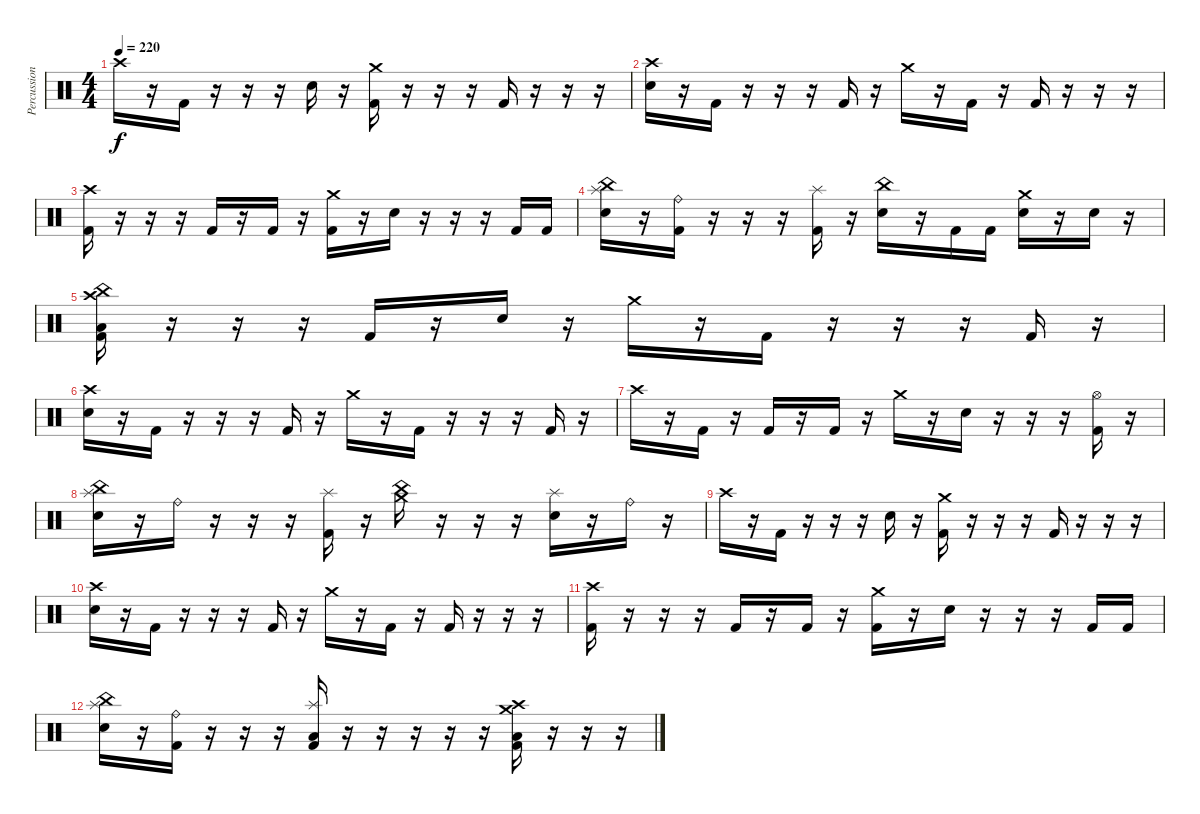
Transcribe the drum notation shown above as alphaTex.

\track ("Percussion" "Percussion") {instrument percussion}
\staff {score}
\articulation defaults
\ts (4 4)
\tempo 220
\clef neutral
\ks c "Crash high (hit)".16{dy f}
r.16 "Kick (hit) 2".16 r.16 r.16 r.16 "Electric Snare (hit)".16 r.16 ("Crash medium (hit)" "Kick (hit) 2").16 r.16 r.16 r.16 "Kick (hit) 2".16 r.16 r.16 r.16 |
("Crash high (hit)" "Electric Snare (hit)").16 r.16 "Kick (hit) 2".16 r.16 r.16 r.16 "Kick (hit) 2".16 r.16 "Crash medium (hit)".16 r.16 "Kick (hit) 2".16 r.16 "Kick (hit) 2".16 r.16 r.16 r.16 |
("Crash high (hit)" "Kick (hit) 2").16 r.16 r.16 r.16 "Kick (hit) 2".16 r.16 "Kick (hit) 2".16 r.16 ("Crash medium (hit)" "Kick (hit) 2").16 r.16 "Electric Snare (hit)".16 r.16 r.16 r.16 "Kick (hit) 2".16 "Kick (hit) 2".16 |
("China (hit)" "Splash (hit)" "Electric Snare (hit)").16 r.16 ("Ride (bell)" "Kick (hit) 2").16 r.16 r.16 r.16 ("Splash (hit)" "Kick (hit) 2").16 r.16 ("China (hit)" "Electric Snare (hit)").16 r.16 "Kick (hit) 2".16 "Kick (hit) 2".16 ("Crash medium (hit)" "Electric Snare (hit)").16 r.16 "Electric Snare (hit)".16 r.16 |
("Crash high (hit)" "China (hit)" "Low Floor Tom (hit)" "Kick (hit) 2").16 r.16 r.16 r.16 "Kick (hit) 2".16 r.16 "Electric Snare (hit)".16 r.16 "Crash medium (hit)".16 r.16 "Kick (hit) 2".16 r.16 r.16 r.16 "Kick (hit) 2".16 r.16 |
("Crash high (hit)" "Electric Snare (hit)").16 r.16 "Kick (hit) 2".16 r.16 r.16 r.16 "Kick (hit) 2".16 r.16 "Crash medium (hit)".16 r.16 "Kick (hit) 2".16 r.16 r.16 r.16 "Kick (hit) 2".16 r.16 |
"Crash high (hit)".16 r.16 "Kick (hit) 2".16 r.16 "Kick (hit) 2".16 r.16 "Kick (hit) 2".16 r.16 "Crash medium (hit)".16 r.16 "Electric Snare (hit)".16 r.16 r.16 r.16 ("Hi-Hat (open)" "Kick (hit) 2").16 r.16 |
("China (hit)" "Splash (hit)" "Electric Snare (hit)").16 r.16 "Ride (bell)".16 r.16 r.16 r.16 ("Splash (hit)" "Kick (hit) 2").16 r.16 ("China (hit)" "Crash medium (hit)").16 r.16 r.16 r.16 ("Splash (hit)" "Electric Snare (hit)").16 r.16 "Ride (bell)".16 r.16 |
"Crash high (hit)".16 r.16 "Kick (hit) 2".16 r.16 r.16 r.16 "Electric Snare (hit)".16 r.16 ("Crash medium (hit)" "Kick (hit) 2").16 r.16 r.16 r.16 "Kick (hit) 2".16 r.16 r.16 r.16 |
("Crash high (hit)" "Electric Snare (hit)").16 r.16 "Kick (hit) 2".16 r.16 r.16 r.16 "Kick (hit) 2".16 r.16 "Crash medium (hit)".16 r.16 "Kick (hit) 2".16 r.16 "Kick (hit) 2".16 r.16 r.16 r.16 |
("Crash high (hit)" "Kick (hit) 2").16 r.16 r.16 r.16 "Kick (hit) 2".16 r.16 "Kick (hit) 2".16 r.16 ("Crash medium (hit)" "Kick (hit) 2").16 r.16 "Electric Snare (hit)".16 r.16 r.16 r.16 "Kick (hit) 2".16 "Kick (hit) 2".16 |
("China (hit)" "Splash (hit)" "Electric Snare (hit)").16 r.16 ("Ride (bell)" "Kick (hit) 2").16 r.16 r.16 r.16 ("Splash (hit)" "Low Floor Tom (hit)" "Kick (hit) 2").16 r.16 r.16 r.16 r.16 r.16 ("Crash medium (hit)" "Crash high (hit)" "Low Floor Tom (hit)" "Kick (hit) 2").16 r.16 r.16 r.16
